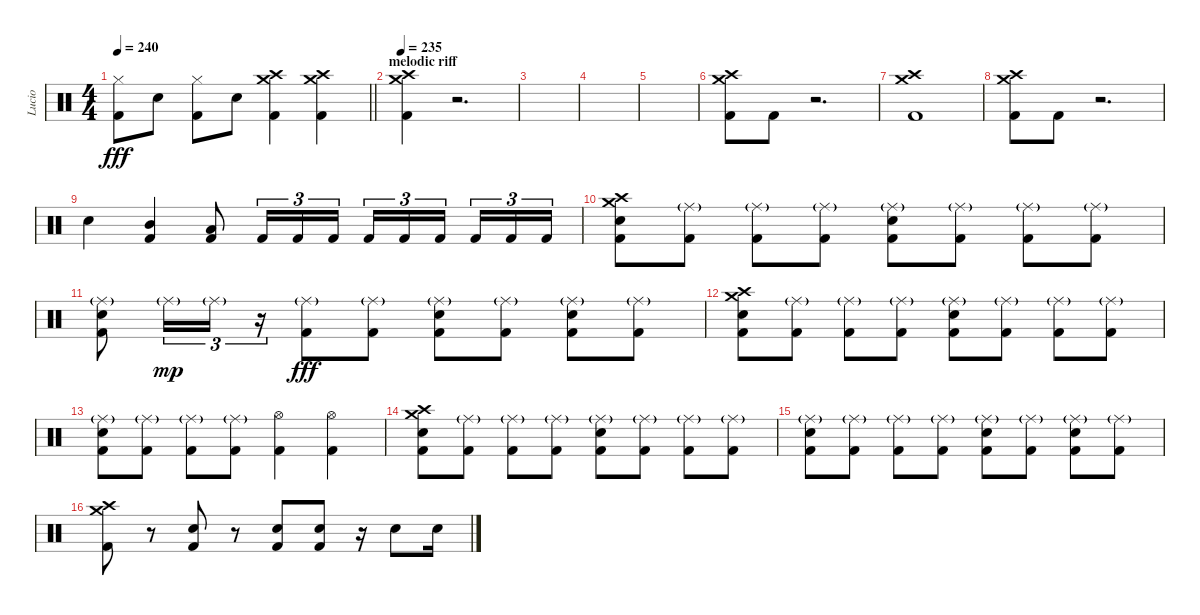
\track ("Lucio" "Lucio") {instrument percussion}
\staff {score}
\articulation defaults
\ts (4 4)
\tempo 240
\clef neutral
\barLineRight lightlight
\ks c
("Hi-Hat (closed)" "Kick (hit) 2").8{dy fff} "Electric Snare (hit)".8 ("Hi-Hat (closed)" "Kick (hit) 2").8 "Electric Snare (hit)".8 ("Crash medium (hit)" "Crash high (hit)" "Kick (hit) 2").4 ("Crash medium (hit)" "Crash high (hit)" "Kick (hit) 2").4 |
\section ("" "melodic riff")
\tempo 235
("Crash medium (hit)" "Crash high (hit)" "Kick (hit) 2").4 r.2{d volume 0} |
|
|
|
("Crash medium (hit)" "Crash high (hit)" "Kick (hit) 2").8{volume 16} "Kick (hit) 2".8 r.2{d volume 0} |
("Crash medium (hit)" "Crash high (hit)" "Kick (hit) 2").1{volume 16} |
("Crash medium (hit)" "Crash high (hit)" "Kick (hit) 2").8{volume 16} "Kick (hit) 2".8 r.2{d volume 0} |
"Electric Snare (hit)".4{volume 16} ("Mid Tom (hit)" "Kick (hit) 2").4 ("Low Tom (hit)" "Kick (hit) 2").8 "Kick (hit) 2".16{tu (3 2)} "Kick (hit) 2".16{tu (3 2)} "Kick (hit) 2".16{tu (3 2)} "Kick (hit) 2".16{tu (3 2)} "Kick (hit) 2".16{tu (3 2)} "Kick (hit) 2".16{tu (3 2) beam splitsecondary} "Kick (hit) 2".16{tu (3 2)} "Kick (hit) 2".16{tu (3 2)} "Kick (hit) 2".16{tu (3 2)} |
("Crash medium (hit)" "Crash high (hit)" "Electric Snare (hit)" "Kick (hit) 2").8 ("Ride (middle)"{g} "Kick (hit) 2").8 ("Ride (middle)"{g} "Kick (hit) 2").8 ("Ride (middle)"{g} "Kick (hit) 2").8 ("Ride (middle)"{g} "Electric Snare (hit)" "Kick (hit) 2").8 ("Ride (middle)"{g} "Kick (hit) 2").8 ("Ride (middle)"{g} "Kick (hit) 2").8 ("Ride (middle)"{g} "Kick (hit) 2").8 |
("Ride (middle)"{g} "Electric Snare (hit)" "Kick (hit) 2").8 "Ride (middle)"{g}.16{tu (3 2) dy mp} "Ride (middle)"{g}.16{tu (3 2)} r.16{tu (3 2)} ("Ride (middle)"{g} "Kick (hit) 2").8{dy fff} ("Ride (middle)"{g} "Kick (hit) 2").8 ("Ride (middle)"{g} "Electric Snare (hit)" "Kick (hit) 2").8 ("Ride (middle)"{g} "Kick (hit) 2").8 ("Ride (middle)"{g} "Electric Snare (hit)" "Kick (hit) 2").8 ("Ride (middle)"{g} "Kick (hit) 2").8 |
("Crash medium (hit)" "Crash high (hit)" "Electric Snare (hit)" "Kick (hit) 2").8 ("Ride (middle)"{g} "Kick (hit) 2").8 ("Ride (middle)"{g} "Kick (hit) 2").8 ("Ride (middle)"{g} "Kick (hit) 2").8 ("Ride (middle)"{g} "Electric Snare (hit)" "Kick (hit) 2").8 ("Ride (middle)"{g} "Kick (hit) 2").8 ("Ride (middle)"{g} "Kick (hit) 2").8 ("Ride (middle)"{g} "Kick (hit) 2").8 |
("Ride (middle)"{g} "Electric Snare (hit)" "Kick (hit) 2").8 ("Ride (middle)"{g} "Kick (hit) 2").8 ("Ride (middle)"{g} "Kick (hit) 2").8 ("Ride (middle)"{g} "Kick (hit) 2").8 ("Hi-Hat (open)" "Kick (hit) 2").4 ("Hi-Hat (open)" "Kick (hit) 2").4 |
("Crash medium (hit)" "Crash high (hit)" "Electric Snare (hit)" "Kick (hit) 2").8 ("Ride (middle)"{g} "Kick (hit) 2").8 ("Ride (middle)"{g} "Kick (hit) 2").8 ("Ride (middle)"{g} "Kick (hit) 2").8 ("Ride (middle)"{g} "Electric Snare (hit)" "Kick (hit) 2").8 ("Ride (middle)"{g} "Kick (hit) 2").8 ("Ride (middle)"{g} "Kick (hit) 2").8 ("Ride (middle)"{g} "Kick (hit) 2").8 |
("Ride (middle)"{g} "Electric Snare (hit)" "Kick (hit) 2").8 ("Ride (middle)"{g} "Kick (hit) 2").8 ("Ride (middle)"{g} "Kick (hit) 2").8 ("Ride (middle)"{g} "Kick (hit) 2").8 ("Ride (middle)"{g} "Electric Snare (hit)" "Kick (hit) 2").8 ("Ride (middle)"{g} "Kick (hit) 2").8 ("Ride (middle)"{g} "Electric Snare (hit)" "Kick (hit) 2").8 ("Ride (middle)"{g} "Kick (hit) 2").8 |
("Crash medium (hit)" "Crash high (hit)" "Kick (hit) 2").8 r.8 ("Electric Snare (hit)" "Kick (hit) 2").8 r.8 ("Electric Snare (hit)" "Kick (hit) 2").8 ("Electric Snare (hit)" "Kick (hit) 2").8 r.16 "Electric Snare (hit)".8 "Electric Snare (hit)".16
